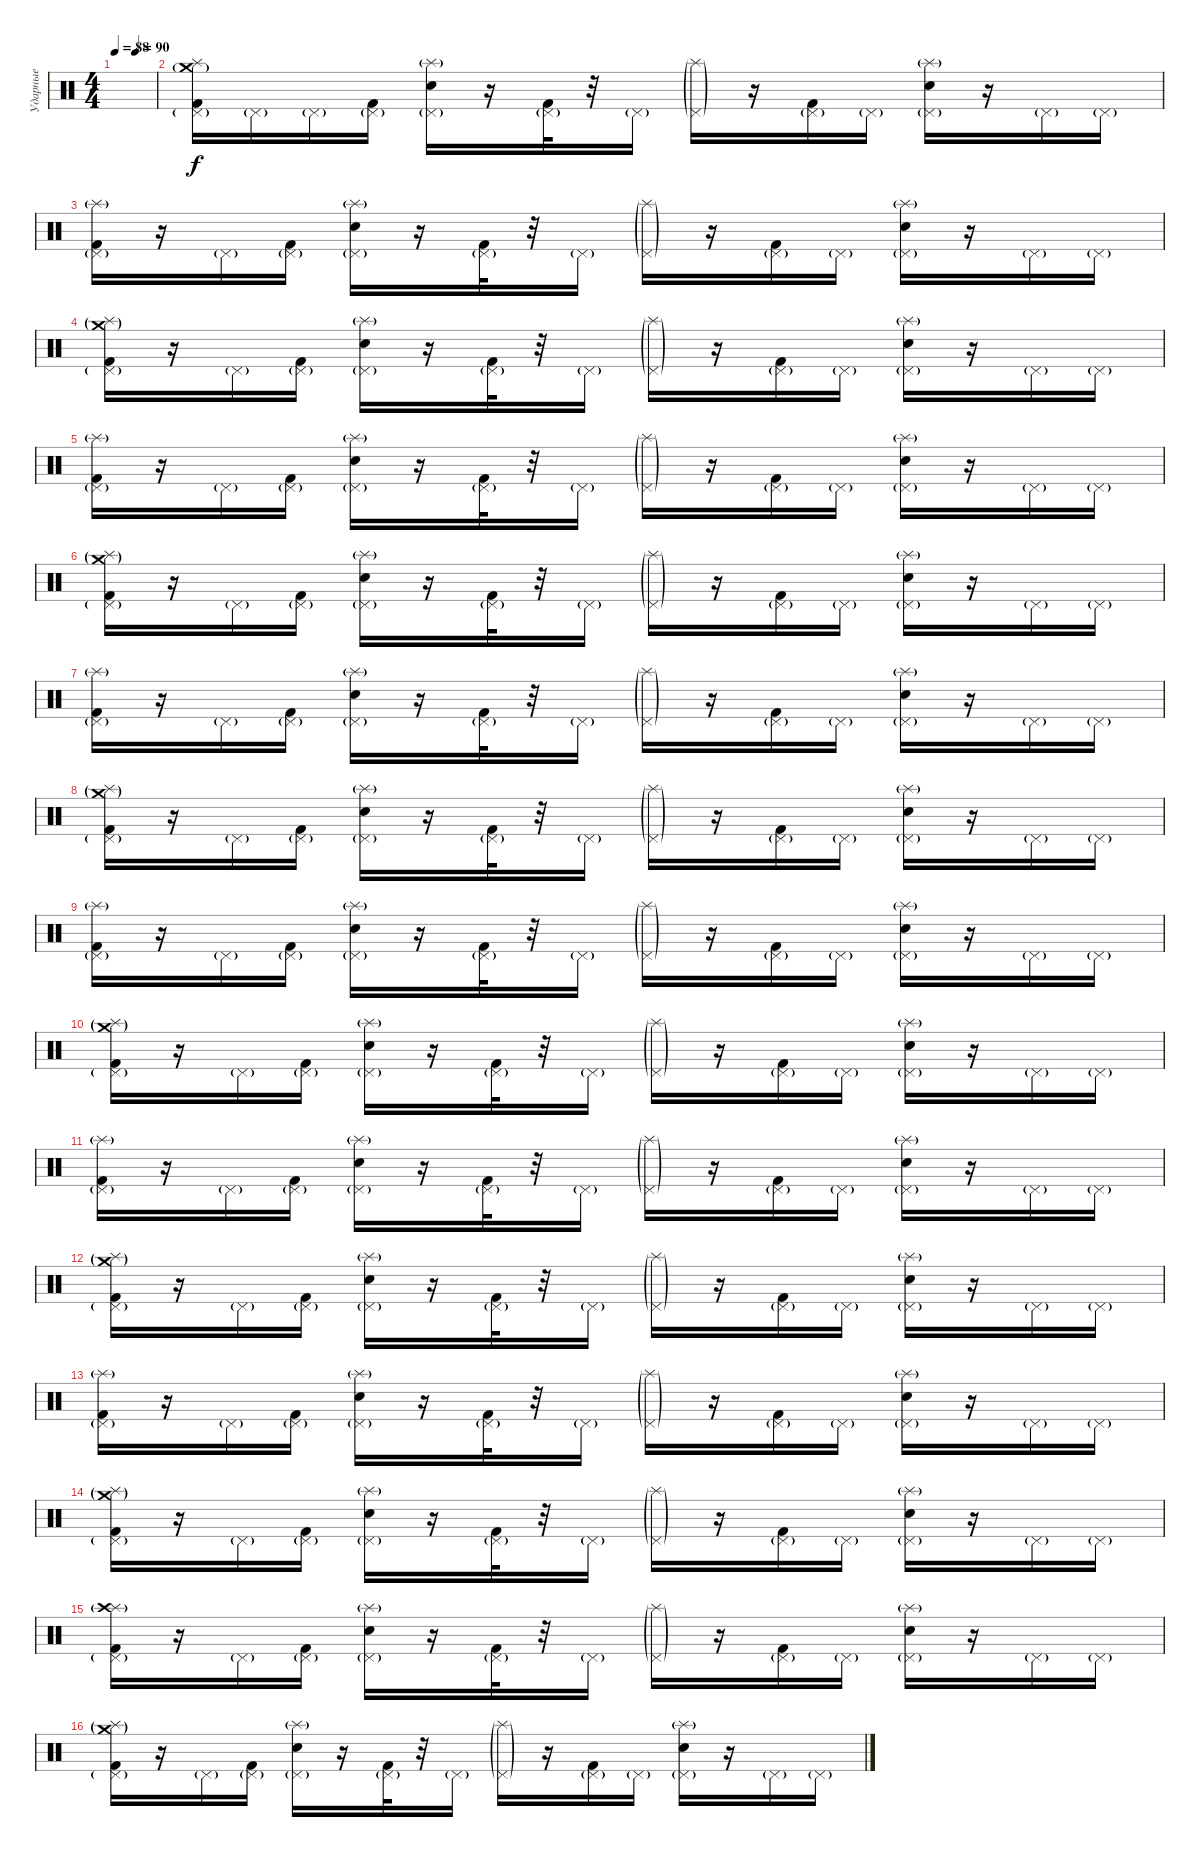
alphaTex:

\track ("Ударные" "Ударные") {instrument percussion}
\staff {score}
\articulation defaults
\ts (4 4)
\tempo 88
\tempo (90 0.5)
\clef neutral
\ks c
|
("Splash (hit)" "Pedal Hi-Hat (hit)"{g} "Crash medium (hit)"{g} "Kick (hit) 2").16 "Pedal Hi-Hat (hit)"{g}.16 "Pedal Hi-Hat (hit)"{g}.16 ("Pedal Hi-Hat (hit)"{g} "Kick (hit) 2").16 ("Splash (hit)"{g} "Pedal Hi-Hat (hit)"{g} "Snare (hit) 2").16 r.16 ("Pedal Hi-Hat (hit)"{g} "Kick (hit) 2").32 r.32 "Pedal Hi-Hat (hit)"{g}.16 ("Splash (hit)"{g} "Pedal Hi-Hat (hit)"{g}).16 r.16 ("Pedal Hi-Hat (hit)"{g} "Kick (hit) 2").16 "Pedal Hi-Hat (hit)"{g}.16 ("Splash (hit)"{g} "Pedal Hi-Hat (hit)"{g} "Snare (hit) 2").16 r.16 "Pedal Hi-Hat (hit)"{g}.16 "Pedal Hi-Hat (hit)"{g}.16 |
("Splash (hit)"{g} "Pedal Hi-Hat (hit)"{g} "Kick (hit) 2").16 r.16 "Pedal Hi-Hat (hit)"{g}.16 ("Pedal Hi-Hat (hit)"{g} "Kick (hit) 2").16 ("Splash (hit)"{g} "Pedal Hi-Hat (hit)"{g} "Snare (hit) 2").16 r.16 ("Pedal Hi-Hat (hit)"{g} "Kick (hit) 2").32 r.32 "Pedal Hi-Hat (hit)"{g}.16 ("Splash (hit)"{g} "Pedal Hi-Hat (hit)"{g}).16 r.16 ("Pedal Hi-Hat (hit)"{g} "Kick (hit) 2").16 "Pedal Hi-Hat (hit)"{g}.16 ("Splash (hit)"{g} "Pedal Hi-Hat (hit)"{g} "Snare (hit) 2").16 r.16 "Pedal Hi-Hat (hit)"{g}.16 "Pedal Hi-Hat (hit)"{g}.16 |
("Splash (hit)"{g} "Pedal Hi-Hat (hit)"{g} "Crash medium (hit)"{g} "Kick (hit) 2").16 r.16 "Pedal Hi-Hat (hit)"{g}.16 ("Pedal Hi-Hat (hit)"{g} "Kick (hit) 2").16 ("Splash (hit)"{g} "Pedal Hi-Hat (hit)"{g} "Snare (hit) 2").16 r.16 ("Pedal Hi-Hat (hit)"{g} "Kick (hit) 2").32 r.32 "Pedal Hi-Hat (hit)"{g}.16 ("Splash (hit)"{g} "Pedal Hi-Hat (hit)"{g}).16 r.16 ("Pedal Hi-Hat (hit)"{g} "Kick (hit) 2").16 "Pedal Hi-Hat (hit)"{g}.16 ("Splash (hit)"{g} "Pedal Hi-Hat (hit)"{g} "Snare (hit) 2").16 r.16 "Pedal Hi-Hat (hit)"{g}.16 "Pedal Hi-Hat (hit)"{g}.16 |
("Splash (hit)"{g} "Pedal Hi-Hat (hit)"{g} "Kick (hit) 2").16 r.16 "Pedal Hi-Hat (hit)"{g}.16 ("Pedal Hi-Hat (hit)"{g} "Kick (hit) 2").16 ("Splash (hit)"{g} "Pedal Hi-Hat (hit)"{g} "Snare (hit) 2").16 r.16 ("Pedal Hi-Hat (hit)"{g} "Kick (hit) 2").32 r.32 "Pedal Hi-Hat (hit)"{g}.16 ("Splash (hit)"{g} "Pedal Hi-Hat (hit)"{g}).16 r.16 ("Pedal Hi-Hat (hit)"{g} "Kick (hit) 2").16 "Pedal Hi-Hat (hit)"{g}.16 ("Splash (hit)"{g} "Pedal Hi-Hat (hit)"{g} "Snare (hit) 2").16 r.16 "Pedal Hi-Hat (hit)"{g}.16 "Pedal Hi-Hat (hit)"{g}.16 |
("Splash (hit)"{g} "Pedal Hi-Hat (hit)"{g} "Crash medium (hit)"{g} "Kick (hit) 2").16 r.16 "Pedal Hi-Hat (hit)"{g}.16 ("Pedal Hi-Hat (hit)"{g} "Kick (hit) 2").16 ("Splash (hit)"{g} "Pedal Hi-Hat (hit)"{g} "Snare (hit) 2").16 r.16 ("Pedal Hi-Hat (hit)"{g} "Kick (hit) 2").32 r.32 "Pedal Hi-Hat (hit)"{g}.16 ("Splash (hit)"{g} "Pedal Hi-Hat (hit)"{g}).16 r.16 ("Pedal Hi-Hat (hit)"{g} "Kick (hit) 2").16 "Pedal Hi-Hat (hit)"{g}.16 ("Splash (hit)"{g} "Pedal Hi-Hat (hit)"{g} "Snare (hit) 2").16 r.16 "Pedal Hi-Hat (hit)"{g}.16 "Pedal Hi-Hat (hit)"{g}.16 |
("Splash (hit)"{g} "Pedal Hi-Hat (hit)"{g} "Kick (hit) 2").16 r.16 "Pedal Hi-Hat (hit)"{g}.16 ("Pedal Hi-Hat (hit)"{g} "Kick (hit) 2").16 ("Splash (hit)"{g} "Pedal Hi-Hat (hit)"{g} "Snare (hit) 2").16 r.16 ("Pedal Hi-Hat (hit)"{g} "Kick (hit) 2").32 r.32 "Pedal Hi-Hat (hit)"{g}.16 ("Splash (hit)"{g} "Pedal Hi-Hat (hit)"{g}).16 r.16 ("Pedal Hi-Hat (hit)"{g} "Kick (hit) 2").16 "Pedal Hi-Hat (hit)"{g}.16 ("Splash (hit)"{g} "Pedal Hi-Hat (hit)"{g} "Snare (hit) 2").16 r.16 "Pedal Hi-Hat (hit)"{g}.16 "Pedal Hi-Hat (hit)"{g}.16 |
("Splash (hit)"{g} "Pedal Hi-Hat (hit)"{g} "Crash medium (hit)"{g} "Kick (hit) 2").16 r.16 "Pedal Hi-Hat (hit)"{g}.16 ("Pedal Hi-Hat (hit)"{g} "Kick (hit) 2").16 ("Splash (hit)"{g} "Pedal Hi-Hat (hit)"{g} "Snare (hit) 2").16 r.16 ("Pedal Hi-Hat (hit)"{g} "Kick (hit) 2").32 r.32 "Pedal Hi-Hat (hit)"{g}.16 ("Splash (hit)"{g} "Pedal Hi-Hat (hit)"{g}).16 r.16 ("Pedal Hi-Hat (hit)"{g} "Kick (hit) 2").16 "Pedal Hi-Hat (hit)"{g}.16 ("Splash (hit)"{g} "Pedal Hi-Hat (hit)"{g} "Snare (hit) 2").16 r.16 "Pedal Hi-Hat (hit)"{g}.16 "Pedal Hi-Hat (hit)"{g}.16 |
("Splash (hit)"{g} "Pedal Hi-Hat (hit)"{g} "Kick (hit) 2").16 r.16 "Pedal Hi-Hat (hit)"{g}.16 ("Pedal Hi-Hat (hit)"{g} "Kick (hit) 2").16 ("Splash (hit)"{g} "Pedal Hi-Hat (hit)"{g} "Snare (hit) 2").16 r.16 ("Pedal Hi-Hat (hit)"{g} "Kick (hit) 2").32 r.32 "Pedal Hi-Hat (hit)"{g}.16 ("Splash (hit)"{g} "Pedal Hi-Hat (hit)"{g}).16 r.16 ("Pedal Hi-Hat (hit)"{g} "Kick (hit) 2").16 "Pedal Hi-Hat (hit)"{g}.16 ("Splash (hit)"{g} "Pedal Hi-Hat (hit)"{g} "Snare (hit) 2").16 r.16 "Pedal Hi-Hat (hit)"{g}.16 "Pedal Hi-Hat (hit)"{g}.16 |
("Splash (hit)"{g} "Pedal Hi-Hat (hit)"{g} "Crash medium (hit)"{g} "Kick (hit) 2").16 r.16 "Pedal Hi-Hat (hit)"{g}.16 ("Pedal Hi-Hat (hit)"{g} "Kick (hit) 2").16 ("Splash (hit)"{g} "Pedal Hi-Hat (hit)"{g} "Snare (hit) 2").16 r.16 ("Pedal Hi-Hat (hit)"{g} "Kick (hit) 2").32 r.32 "Pedal Hi-Hat (hit)"{g}.16 ("Splash (hit)"{g} "Pedal Hi-Hat (hit)"{g}).16 r.16 ("Pedal Hi-Hat (hit)"{g} "Kick (hit) 2").16 "Pedal Hi-Hat (hit)"{g}.16 ("Splash (hit)"{g} "Pedal Hi-Hat (hit)"{g} "Snare (hit) 2").16 r.16 "Pedal Hi-Hat (hit)"{g}.16 "Pedal Hi-Hat (hit)"{g}.16 |
("Splash (hit)"{g} "Pedal Hi-Hat (hit)"{g} "Kick (hit) 2").16 r.16 "Pedal Hi-Hat (hit)"{g}.16 ("Pedal Hi-Hat (hit)"{g} "Kick (hit) 2").16 ("Splash (hit)"{g} "Pedal Hi-Hat (hit)"{g} "Snare (hit) 2").16 r.16 ("Pedal Hi-Hat (hit)"{g} "Kick (hit) 2").32 r.32 "Pedal Hi-Hat (hit)"{g}.16 ("Splash (hit)"{g} "Pedal Hi-Hat (hit)"{g}).16 r.16 ("Pedal Hi-Hat (hit)"{g} "Kick (hit) 2").16 "Pedal Hi-Hat (hit)"{g}.16 ("Splash (hit)"{g} "Pedal Hi-Hat (hit)"{g} "Snare (hit) 2").16 r.16 "Pedal Hi-Hat (hit)"{g}.16 "Pedal Hi-Hat (hit)"{g}.16 |
("Splash (hit)"{g} "Pedal Hi-Hat (hit)"{g} "Crash medium (hit)"{g} "Kick (hit) 2").16 r.16 "Pedal Hi-Hat (hit)"{g}.16 ("Pedal Hi-Hat (hit)"{g} "Kick (hit) 2").16 ("Splash (hit)"{g} "Pedal Hi-Hat (hit)"{g} "Snare (hit) 2").16 r.16 ("Pedal Hi-Hat (hit)"{g} "Kick (hit) 2").32 r.32 "Pedal Hi-Hat (hit)"{g}.16 ("Splash (hit)"{g} "Pedal Hi-Hat (hit)"{g}).16 r.16 ("Pedal Hi-Hat (hit)"{g} "Kick (hit) 2").16 "Pedal Hi-Hat (hit)"{g}.16 ("Splash (hit)"{g} "Pedal Hi-Hat (hit)"{g} "Snare (hit) 2").16 r.16 "Pedal Hi-Hat (hit)"{g}.16 "Pedal Hi-Hat (hit)"{g}.16 |
("Splash (hit)"{g} "Pedal Hi-Hat (hit)"{g} "Kick (hit) 2").16 r.16 "Pedal Hi-Hat (hit)"{g}.16 ("Pedal Hi-Hat (hit)"{g} "Kick (hit) 2").16 ("Splash (hit)"{g} "Pedal Hi-Hat (hit)"{g} "Snare (hit) 2").16 r.16 ("Pedal Hi-Hat (hit)"{g} "Kick (hit) 2").32 r.32 "Pedal Hi-Hat (hit)"{g}.16 ("Splash (hit)"{g} "Pedal Hi-Hat (hit)"{g}).16 r.16 ("Pedal Hi-Hat (hit)"{g} "Kick (hit) 2").16 "Pedal Hi-Hat (hit)"{g}.16 ("Splash (hit)"{g} "Pedal Hi-Hat (hit)"{g} "Snare (hit) 2").16 r.16 "Pedal Hi-Hat (hit)"{g}.16 "Pedal Hi-Hat (hit)"{g}.16 |
("Splash (hit)"{g} "Pedal Hi-Hat (hit)"{g} "Crash medium (hit)"{g} "Kick (hit) 2").16 r.16 "Pedal Hi-Hat (hit)"{g}.16 ("Pedal Hi-Hat (hit)"{g} "Kick (hit) 2").16 ("Splash (hit)"{g} "Pedal Hi-Hat (hit)"{g} "Snare (hit) 2").16 r.16 ("Pedal Hi-Hat (hit)"{g} "Kick (hit) 2").32 r.32 "Pedal Hi-Hat (hit)"{g}.16 ("Splash (hit)"{g} "Pedal Hi-Hat (hit)"{g}).16 r.16 ("Pedal Hi-Hat (hit)"{g} "Kick (hit) 2").16 "Pedal Hi-Hat (hit)"{g}.16 ("Splash (hit)"{g} "Pedal Hi-Hat (hit)"{g} "Snare (hit) 2").16 r.16 "Pedal Hi-Hat (hit)"{g}.16 "Pedal Hi-Hat (hit)"{g}.16 |
("Splash (hit)"{g} "Pedal Hi-Hat (hit)"{g} "Crash high (hit)"{g} "Kick (hit) 2").16 r.16 "Pedal Hi-Hat (hit)"{g}.16 ("Pedal Hi-Hat (hit)"{g} "Kick (hit) 2").16 ("Splash (hit)"{g} "Pedal Hi-Hat (hit)"{g} "Snare (hit) 2").16 r.16 ("Pedal Hi-Hat (hit)"{g} "Kick (hit) 2").32 r.32 "Pedal Hi-Hat (hit)"{g}.16 ("Splash (hit)"{g} "Pedal Hi-Hat (hit)"{g}).16 r.16 ("Pedal Hi-Hat (hit)"{g} "Kick (hit) 2").16 "Pedal Hi-Hat (hit)"{g}.16 ("Splash (hit)"{g} "Pedal Hi-Hat (hit)"{g} "Snare (hit) 2").16 r.16 "Pedal Hi-Hat (hit)"{g}.16 "Pedal Hi-Hat (hit)"{g}.16 |
("Splash (hit)"{g} "Pedal Hi-Hat (hit)"{g} "Crash medium (hit)"{g} "Kick (hit) 2").16 r.16 "Pedal Hi-Hat (hit)"{g}.16 ("Pedal Hi-Hat (hit)"{g} "Kick (hit) 2").16 ("Splash (hit)"{g} "Pedal Hi-Hat (hit)"{g} "Snare (hit) 2").16 r.16 ("Pedal Hi-Hat (hit)"{g} "Kick (hit) 2").32 r.32 "Pedal Hi-Hat (hit)"{g}.16 ("Splash (hit)"{g} "Pedal Hi-Hat (hit)"{g}).16 r.16 ("Pedal Hi-Hat (hit)"{g} "Kick (hit) 2").16 "Pedal Hi-Hat (hit)"{g}.16 ("Splash (hit)"{g} "Pedal Hi-Hat (hit)"{g} "Snare (hit) 2").16 r.16 "Pedal Hi-Hat (hit)"{g}.16 "Pedal Hi-Hat (hit)"{g}.16
